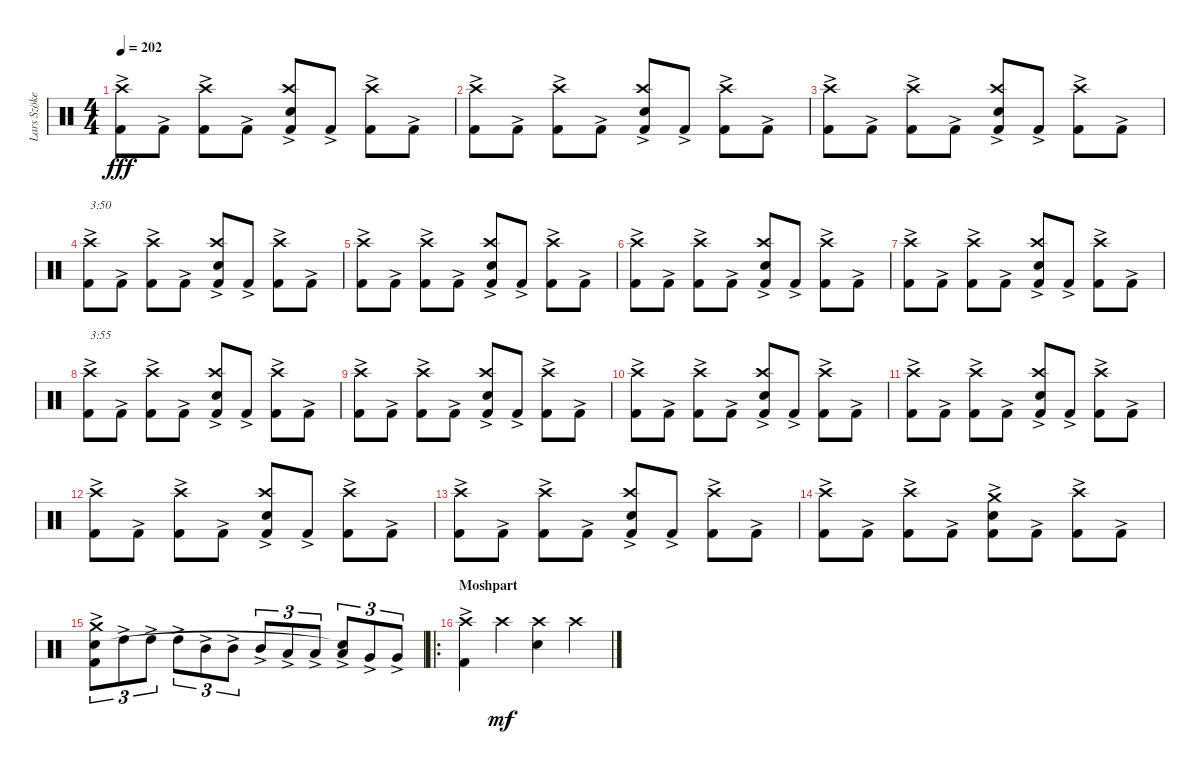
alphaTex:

\track ("Lars Szöke" "Lars Szöke") {instrument percussion}
\staff {score}
\articulation defaults
\ts (4 4)
\tempo 202
\clef neutral
\ks c
("Kick (hit) 2"{ac} "Crash high (hit)").8{dy fff} "Kick (hit) 2"{ac}.8 ("Kick (hit) 2"{ac} "Crash high (hit)").8 "Kick (hit) 2"{ac}.8 ("Kick (hit) 2"{ac} "Snare (hit) 2" "Crash high (hit)").8 "Kick (hit) 2"{ac}.8 ("Kick (hit) 2"{ac} "Crash high (hit)").8 "Kick (hit) 2"{ac}.8 |
("Kick (hit) 2"{ac} "Crash high (hit)").8 "Kick (hit) 2"{ac}.8 ("Kick (hit) 2"{ac} "Crash high (hit)").8 "Kick (hit) 2"{ac}.8 ("Kick (hit) 2"{ac} "Snare (hit) 2" "Crash high (hit)").8 "Kick (hit) 2"{ac}.8 ("Kick (hit) 2"{ac} "Crash high (hit)").8 "Kick (hit) 2"{ac}.8 |
("Kick (hit) 2"{ac} "Crash high (hit)").8 "Kick (hit) 2"{ac}.8 ("Kick (hit) 2"{ac} "Crash high (hit)").8 "Kick (hit) 2"{ac}.8 ("Kick (hit) 2"{ac} "Snare (hit) 2" "Crash high (hit)").8 "Kick (hit) 2"{ac}.8 ("Kick (hit) 2"{ac} "Crash high (hit)").8 "Kick (hit) 2"{ac}.8 |
("Kick (hit) 2"{ac} "Crash high (hit)").8{txt "3:50"} "Kick (hit) 2"{ac}.8 ("Kick (hit) 2"{ac} "Crash high (hit)").8 "Kick (hit) 2"{ac}.8 ("Kick (hit) 2"{ac} "Snare (hit) 2" "Crash high (hit)").8 "Kick (hit) 2"{ac}.8 ("Kick (hit) 2"{ac} "Crash high (hit)").8 "Kick (hit) 2"{ac}.8 |
("Kick (hit) 2"{ac} "Crash high (hit)").8 "Kick (hit) 2"{ac}.8 ("Kick (hit) 2"{ac} "Crash high (hit)").8 "Kick (hit) 2"{ac}.8 ("Kick (hit) 2"{ac} "Snare (hit) 2" "Crash high (hit)").8 "Kick (hit) 2"{ac}.8 ("Kick (hit) 2"{ac} "Crash high (hit)").8 "Kick (hit) 2"{ac}.8 |
("Kick (hit) 2"{ac} "Crash high (hit)").8 "Kick (hit) 2"{ac}.8 ("Kick (hit) 2"{ac} "Crash high (hit)").8 "Kick (hit) 2"{ac}.8 ("Kick (hit) 2"{ac} "Snare (hit) 2" "Crash high (hit)").8 "Kick (hit) 2"{ac}.8 ("Kick (hit) 2"{ac} "Crash high (hit)").8 "Kick (hit) 2"{ac}.8 |
("Kick (hit) 2"{ac} "Crash high (hit)").8 "Kick (hit) 2"{ac}.8 ("Kick (hit) 2"{ac} "Crash high (hit)").8 "Kick (hit) 2"{ac}.8 ("Kick (hit) 2"{ac} "Snare (hit) 2" "Crash high (hit)").8 "Kick (hit) 2"{ac}.8 ("Kick (hit) 2"{ac} "Crash high (hit)").8 "Kick (hit) 2"{ac}.8 |
("Kick (hit) 2"{ac} "Crash high (hit)"{ac}).8{txt "3:55"} "Kick (hit) 2"{ac}.8 ("Kick (hit) 2"{ac} "Crash high (hit)").8 "Kick (hit) 2"{ac}.8 ("Kick (hit) 2"{ac} "Snare (hit) 2" "Crash high (hit)").8 "Kick (hit) 2"{ac}.8 ("Kick (hit) 2"{ac} "Crash high (hit)").8 "Kick (hit) 2"{ac}.8 |
("Kick (hit) 2"{ac} "Crash high (hit)").8 "Kick (hit) 2"{ac}.8 ("Kick (hit) 2"{ac} "Crash high (hit)").8 "Kick (hit) 2"{ac}.8 ("Kick (hit) 2"{ac} "Snare (hit) 2" "Crash high (hit)").8 "Kick (hit) 2"{ac}.8 ("Kick (hit) 2"{ac} "Crash high (hit)").8 "Kick (hit) 2"{ac}.8 |
("Kick (hit) 2"{ac} "Crash high (hit)").8 "Kick (hit) 2"{ac}.8 ("Kick (hit) 2"{ac} "Crash high (hit)").8 "Kick (hit) 2"{ac}.8 ("Kick (hit) 2"{ac} "Snare (hit) 2" "Crash high (hit)").8 "Kick (hit) 2"{ac}.8 ("Kick (hit) 2"{ac} "Crash high (hit)").8 "Kick (hit) 2"{ac}.8 |
("Kick (hit) 2"{ac} "Crash high (hit)").8 "Kick (hit) 2"{ac}.8 ("Kick (hit) 2"{ac} "Crash high (hit)").8 "Kick (hit) 2"{ac}.8 ("Kick (hit) 2"{ac} "Snare (hit) 2" "Crash high (hit)").8 "Kick (hit) 2"{ac}.8 ("Kick (hit) 2"{ac} "Crash high (hit)").8 "Kick (hit) 2"{ac}.8 |
("Kick (hit) 2"{ac} "Crash high (hit)").8 "Kick (hit) 2"{ac}.8 ("Kick (hit) 2"{ac} "Crash high (hit)").8 "Kick (hit) 2"{ac}.8 ("Kick (hit) 2"{ac} "Snare (hit) 2" "Crash high (hit)").8 "Kick (hit) 2"{ac}.8 ("Kick (hit) 2"{ac} "Crash high (hit)").8 "Kick (hit) 2"{ac}.8 |
("Kick (hit) 2"{ac} "Crash high (hit)").8 "Kick (hit) 2"{ac}.8 ("Kick (hit) 2"{ac} "Crash high (hit)").8 "Kick (hit) 2"{ac}.8 ("Kick (hit) 2"{ac} "Snare (hit) 2" "Crash high (hit)").8 "Kick (hit) 2"{ac}.8 ("Kick (hit) 2"{ac} "Crash high (hit)").8 "Kick (hit) 2"{ac}.8 |
("Kick (hit) 2"{ac} "Crash high (hit)").8 "Kick (hit) 2"{ac}.8 ("Kick (hit) 2"{ac} "Crash high (hit)").8 "Kick (hit) 2"{ac}.8 ("Kick (hit) 2"{ac} "Snare (hit) 2" "Crash medium (hit)"{ac}).8 "Kick (hit) 2"{ac}.8 ("Kick (hit) 2"{ac} "Crash high (hit)").8 "Kick (hit) 2"{ac}.8 |
("Kick (hit) 2"{ac} "Snare (hit) 2"{ac} "Crash medium (hit)"{ac}).8{tu (3 2)} "High Tom (hit)"{ac}.8{tu (3 2)} "High Tom (hit)"{ac}.8{tu (3 2)} "High Tom (hit)"{ac}.8{tu (3 2)} "Mid Tom (hit)"{ac}.8{tu (3 2)} "Mid Tom (hit)"{ac}.8{tu (3 2)} "Mid Tom (hit)"{ac}.8{tu (3 2)} "Low Tom (hit)"{ac}.8{tu (3 2)} "Low Tom (hit)"{ac}.8{tu (3 2)} ("Low Tom (hit)"{ac} "Snare (hit)"{t}).8{tu (3 2)} "Very Low Tom (hit)"{ac}.8{tu (3 2)} "Very Low Tom (hit)"{ac}.8{tu (3 2)} |
\ro
\section ("" "Moshpart")
("Kick (hit) 2"{ac} "Crash high (hit)"{ac}).4 "Crash high (hit)".4{dy mf} ("Snare (hit) 2" "Crash high (hit)").4 "Crash high (hit)".4
